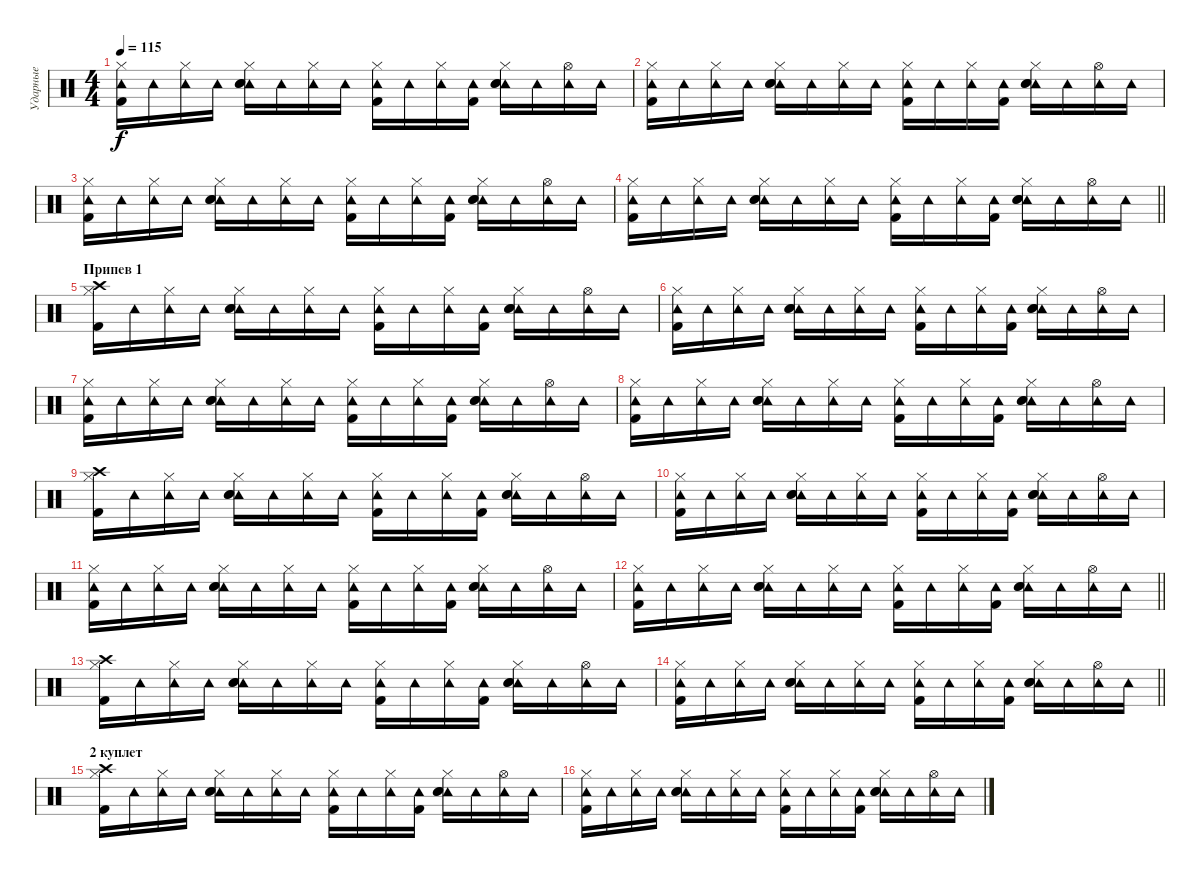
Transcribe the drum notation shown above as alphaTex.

\track ("Ударные" "Ударные") {instrument percussion}
\staff {score}
\articulation defaults
\ts (4 4)
\tempo 115
\clef neutral
\ks c
("Tambourine (hit)" "Hi-Hat (closed)" "Kick (hit) 2").16{dy f} "Tambourine (hit)".16 ("Tambourine (hit)" "Hi-Hat (closed)").16 "Tambourine (hit)".16 ("Tambourine (hit)" "Hi-Hat (closed)" "Electric Snare (hit)" "Snare (hit) 2").16 "Tambourine (hit)".16 ("Tambourine (hit)" "Hi-Hat (closed)").16 "Tambourine (hit)".16 ("Tambourine (hit)" "Hi-Hat (closed)" "Kick (hit) 2").16 "Tambourine (hit)".16 ("Tambourine (hit)" "Hi-Hat (closed)").16 ("Tambourine (hit)" "Kick (hit) 2").16 ("Tambourine (hit)" "Hi-Hat (closed)" "Electric Snare (hit)" "Snare (hit) 2").16 "Tambourine (hit)".16 ("Tambourine (hit)" "Hi-Hat (open)").16 "Tambourine (hit)".16 |
("Tambourine (hit)" "Hi-Hat (closed)" "Kick (hit) 2").16 "Tambourine (hit)".16 ("Tambourine (hit)" "Hi-Hat (closed)").16 "Tambourine (hit)".16 ("Tambourine (hit)" "Hi-Hat (closed)" "Electric Snare (hit)" "Snare (hit) 2").16 "Tambourine (hit)".16 ("Tambourine (hit)" "Hi-Hat (closed)").16 "Tambourine (hit)".16 ("Tambourine (hit)" "Hi-Hat (closed)" "Kick (hit) 2").16 "Tambourine (hit)".16 ("Tambourine (hit)" "Hi-Hat (closed)").16 ("Tambourine (hit)" "Kick (hit) 2").16 ("Tambourine (hit)" "Hi-Hat (closed)" "Electric Snare (hit)" "Snare (hit) 2").16 "Tambourine (hit)".16 ("Tambourine (hit)" "Hi-Hat (open)").16 "Tambourine (hit)".16 |
("Tambourine (hit)" "Hi-Hat (closed)" "Kick (hit) 2").16 "Tambourine (hit)".16 ("Tambourine (hit)" "Hi-Hat (closed)").16 "Tambourine (hit)".16 ("Tambourine (hit)" "Hi-Hat (closed)" "Electric Snare (hit)" "Snare (hit) 2").16 "Tambourine (hit)".16 ("Tambourine (hit)" "Hi-Hat (closed)").16 "Tambourine (hit)".16 ("Tambourine (hit)" "Hi-Hat (closed)" "Kick (hit) 2").16 "Tambourine (hit)".16 ("Tambourine (hit)" "Hi-Hat (closed)").16 ("Tambourine (hit)" "Kick (hit) 2").16 ("Tambourine (hit)" "Hi-Hat (closed)" "Electric Snare (hit)" "Snare (hit) 2").16 "Tambourine (hit)".16 ("Tambourine (hit)" "Hi-Hat (open)").16 "Tambourine (hit)".16 |
\barLineRight lightlight
("Tambourine (hit)" "Hi-Hat (closed)" "Kick (hit) 2").16 "Tambourine (hit)".16 ("Tambourine (hit)" "Hi-Hat (closed)").16 "Tambourine (hit)".16 ("Tambourine (hit)" "Hi-Hat (closed)" "Electric Snare (hit)" "Snare (hit) 2").16 "Tambourine (hit)".16 ("Tambourine (hit)" "Hi-Hat (closed)").16 "Tambourine (hit)".16 ("Tambourine (hit)" "Hi-Hat (closed)" "Kick (hit) 2").16 "Tambourine (hit)".16 ("Tambourine (hit)" "Hi-Hat (closed)").16 ("Tambourine (hit)" "Kick (hit) 2").16 ("Tambourine (hit)" "Hi-Hat (closed)" "Electric Snare (hit)" "Snare (hit) 2").16 "Tambourine (hit)".16 ("Tambourine (hit)" "Hi-Hat (open)").16 "Tambourine (hit)".16 |
\section ("" "Припев 1")
("Crash high (hit)" "Hi-Hat (closed)" "Kick (hit) 2").16 "Tambourine (hit)".16 ("Tambourine (hit)" "Hi-Hat (closed)").16 "Tambourine (hit)".16 ("Tambourine (hit)" "Hi-Hat (closed)" "Electric Snare (hit)" "Snare (hit) 2").16 "Tambourine (hit)".16 ("Tambourine (hit)" "Hi-Hat (closed)").16 "Tambourine (hit)".16 ("Tambourine (hit)" "Hi-Hat (closed)" "Kick (hit) 2").16 "Tambourine (hit)".16 ("Tambourine (hit)" "Hi-Hat (closed)").16 ("Tambourine (hit)" "Kick (hit) 2").16 ("Tambourine (hit)" "Hi-Hat (closed)" "Electric Snare (hit)" "Snare (hit) 2").16 "Tambourine (hit)".16 ("Tambourine (hit)" "Hi-Hat (open)").16 "Tambourine (hit)".16 |
("Tambourine (hit)" "Hi-Hat (closed)" "Kick (hit) 2").16 "Tambourine (hit)".16 ("Tambourine (hit)" "Hi-Hat (closed)").16 "Tambourine (hit)".16 ("Tambourine (hit)" "Hi-Hat (closed)" "Electric Snare (hit)" "Snare (hit) 2").16 "Tambourine (hit)".16 ("Tambourine (hit)" "Hi-Hat (closed)").16 "Tambourine (hit)".16 ("Tambourine (hit)" "Hi-Hat (closed)" "Kick (hit) 2").16 "Tambourine (hit)".16 ("Tambourine (hit)" "Hi-Hat (closed)").16 ("Tambourine (hit)" "Kick (hit) 2").16 ("Tambourine (hit)" "Hi-Hat (closed)" "Electric Snare (hit)" "Snare (hit) 2").16 "Tambourine (hit)".16 ("Tambourine (hit)" "Hi-Hat (open)").16 "Tambourine (hit)".16 |
("Tambourine (hit)" "Hi-Hat (closed)" "Kick (hit) 2").16 "Tambourine (hit)".16 ("Tambourine (hit)" "Hi-Hat (closed)").16 "Tambourine (hit)".16 ("Tambourine (hit)" "Hi-Hat (closed)" "Electric Snare (hit)" "Snare (hit) 2").16 "Tambourine (hit)".16 ("Tambourine (hit)" "Hi-Hat (closed)").16 "Tambourine (hit)".16 ("Tambourine (hit)" "Hi-Hat (closed)" "Kick (hit) 2").16 "Tambourine (hit)".16 ("Tambourine (hit)" "Hi-Hat (closed)").16 ("Tambourine (hit)" "Kick (hit) 2").16 ("Tambourine (hit)" "Hi-Hat (closed)" "Electric Snare (hit)" "Snare (hit) 2").16 "Tambourine (hit)".16 ("Tambourine (hit)" "Hi-Hat (open)").16 "Tambourine (hit)".16 |
("Tambourine (hit)" "Hi-Hat (closed)" "Kick (hit) 2").16 "Tambourine (hit)".16 ("Tambourine (hit)" "Hi-Hat (closed)").16 "Tambourine (hit)".16 ("Tambourine (hit)" "Hi-Hat (closed)" "Electric Snare (hit)" "Snare (hit) 2").16 "Tambourine (hit)".16 ("Tambourine (hit)" "Hi-Hat (closed)").16 "Tambourine (hit)".16 ("Tambourine (hit)" "Hi-Hat (closed)" "Kick (hit) 2").16 "Tambourine (hit)".16 ("Tambourine (hit)" "Hi-Hat (closed)").16 ("Tambourine (hit)" "Kick (hit) 2").16 ("Tambourine (hit)" "Hi-Hat (closed)" "Electric Snare (hit)" "Snare (hit) 2").16 "Tambourine (hit)".16 ("Tambourine (hit)" "Hi-Hat (open)").16 "Tambourine (hit)".16 |
("Crash high (hit)" "Hi-Hat (closed)" "Kick (hit) 2").16 "Tambourine (hit)".16 ("Tambourine (hit)" "Hi-Hat (closed)").16 "Tambourine (hit)".16 ("Tambourine (hit)" "Hi-Hat (closed)" "Electric Snare (hit)" "Snare (hit) 2").16 "Tambourine (hit)".16 ("Tambourine (hit)" "Hi-Hat (closed)").16 "Tambourine (hit)".16 ("Tambourine (hit)" "Hi-Hat (closed)" "Kick (hit) 2").16 "Tambourine (hit)".16 ("Tambourine (hit)" "Hi-Hat (closed)").16 ("Tambourine (hit)" "Kick (hit) 2").16 ("Tambourine (hit)" "Hi-Hat (closed)" "Electric Snare (hit)" "Snare (hit) 2").16 "Tambourine (hit)".16 ("Tambourine (hit)" "Hi-Hat (open)").16 "Tambourine (hit)".16 |
("Tambourine (hit)" "Hi-Hat (closed)" "Kick (hit) 2").16 "Tambourine (hit)".16 ("Tambourine (hit)" "Hi-Hat (closed)").16 "Tambourine (hit)".16 ("Tambourine (hit)" "Hi-Hat (closed)" "Electric Snare (hit)" "Snare (hit) 2").16 "Tambourine (hit)".16 ("Tambourine (hit)" "Hi-Hat (closed)").16 "Tambourine (hit)".16 ("Tambourine (hit)" "Hi-Hat (closed)" "Kick (hit) 2").16 "Tambourine (hit)".16 ("Tambourine (hit)" "Hi-Hat (closed)").16 ("Tambourine (hit)" "Kick (hit) 2").16 ("Tambourine (hit)" "Hi-Hat (closed)" "Electric Snare (hit)" "Snare (hit) 2").16 "Tambourine (hit)".16 ("Tambourine (hit)" "Hi-Hat (open)").16 "Tambourine (hit)".16 |
("Tambourine (hit)" "Hi-Hat (closed)" "Kick (hit) 2").16 "Tambourine (hit)".16 ("Tambourine (hit)" "Hi-Hat (closed)").16 "Tambourine (hit)".16 ("Tambourine (hit)" "Hi-Hat (closed)" "Electric Snare (hit)" "Snare (hit) 2").16 "Tambourine (hit)".16 ("Tambourine (hit)" "Hi-Hat (closed)").16 "Tambourine (hit)".16 ("Tambourine (hit)" "Hi-Hat (closed)" "Kick (hit) 2").16 "Tambourine (hit)".16 ("Tambourine (hit)" "Hi-Hat (closed)").16 ("Tambourine (hit)" "Kick (hit) 2").16 ("Tambourine (hit)" "Hi-Hat (closed)" "Electric Snare (hit)" "Snare (hit) 2").16 "Tambourine (hit)".16 ("Tambourine (hit)" "Hi-Hat (open)").16 "Tambourine (hit)".16 |
\barLineRight lightlight
("Tambourine (hit)" "Hi-Hat (closed)" "Kick (hit) 2").16 "Tambourine (hit)".16 ("Tambourine (hit)" "Hi-Hat (closed)").16 "Tambourine (hit)".16 ("Tambourine (hit)" "Hi-Hat (closed)" "Electric Snare (hit)" "Snare (hit) 2").16 "Tambourine (hit)".16 ("Tambourine (hit)" "Hi-Hat (closed)").16 "Tambourine (hit)".16 ("Tambourine (hit)" "Hi-Hat (closed)" "Kick (hit) 2").16 "Tambourine (hit)".16 ("Tambourine (hit)" "Hi-Hat (closed)").16 ("Tambourine (hit)" "Kick (hit) 2").16 ("Tambourine (hit)" "Hi-Hat (closed)" "Electric Snare (hit)" "Snare (hit) 2").16 "Tambourine (hit)".16 ("Tambourine (hit)" "Hi-Hat (open)").16 "Tambourine (hit)".16 |
\section ("" "")
("Crash high (hit)" "Hi-Hat (closed)" "Kick (hit) 2").16 "Tambourine (hit)".16 ("Tambourine (hit)" "Hi-Hat (closed)").16 "Tambourine (hit)".16 ("Tambourine (hit)" "Hi-Hat (closed)" "Electric Snare (hit)" "Snare (hit) 2").16 "Tambourine (hit)".16 ("Tambourine (hit)" "Hi-Hat (closed)").16 "Tambourine (hit)".16 ("Tambourine (hit)" "Hi-Hat (closed)" "Kick (hit) 2").16 "Tambourine (hit)".16 ("Tambourine (hit)" "Hi-Hat (closed)").16 ("Tambourine (hit)" "Kick (hit) 2").16 ("Tambourine (hit)" "Hi-Hat (closed)" "Electric Snare (hit)" "Snare (hit) 2").16 "Tambourine (hit)".16 ("Tambourine (hit)" "Hi-Hat (open)").16 "Tambourine (hit)".16 |
\barLineRight lightlight
("Tambourine (hit)" "Hi-Hat (closed)" "Kick (hit) 2").16 "Tambourine (hit)".16 ("Tambourine (hit)" "Hi-Hat (closed)").16 "Tambourine (hit)".16 ("Tambourine (hit)" "Hi-Hat (closed)" "Electric Snare (hit)" "Snare (hit) 2").16 "Tambourine (hit)".16 ("Tambourine (hit)" "Hi-Hat (closed)").16 "Tambourine (hit)".16 ("Tambourine (hit)" "Hi-Hat (closed)" "Kick (hit) 2").16 "Tambourine (hit)".16 ("Tambourine (hit)" "Hi-Hat (closed)").16 ("Tambourine (hit)" "Kick (hit) 2").16 ("Tambourine (hit)" "Hi-Hat (closed)" "Electric Snare (hit)" "Snare (hit) 2").16 "Tambourine (hit)".16 ("Tambourine (hit)" "Hi-Hat (open)").16 "Tambourine (hit)".16 |
\section ("" "2 куплет")
("Crash high (hit)" "Hi-Hat (closed)" "Kick (hit) 2").16 "Tambourine (hit)".16 ("Tambourine (hit)" "Hi-Hat (closed)").16 "Tambourine (hit)".16 ("Tambourine (hit)" "Hi-Hat (closed)" "Electric Snare (hit)" "Snare (hit) 2").16 "Tambourine (hit)".16 ("Tambourine (hit)" "Hi-Hat (closed)").16 "Tambourine (hit)".16 ("Tambourine (hit)" "Hi-Hat (closed)" "Kick (hit) 2").16 "Tambourine (hit)".16 ("Tambourine (hit)" "Hi-Hat (closed)").16 ("Tambourine (hit)" "Kick (hit) 2").16 ("Tambourine (hit)" "Hi-Hat (closed)" "Electric Snare (hit)" "Snare (hit) 2").16 "Tambourine (hit)".16 ("Tambourine (hit)" "Hi-Hat (open)").16 "Tambourine (hit)".16 |
("Tambourine (hit)" "Hi-Hat (closed)" "Kick (hit) 2").16 "Tambourine (hit)".16 ("Tambourine (hit)" "Hi-Hat (closed)").16 "Tambourine (hit)".16 ("Tambourine (hit)" "Hi-Hat (closed)" "Electric Snare (hit)" "Snare (hit) 2").16 "Tambourine (hit)".16 ("Tambourine (hit)" "Hi-Hat (closed)").16 "Tambourine (hit)".16 ("Tambourine (hit)" "Hi-Hat (closed)" "Kick (hit) 2").16 "Tambourine (hit)".16 ("Tambourine (hit)" "Hi-Hat (closed)").16 ("Tambourine (hit)" "Kick (hit) 2").16 ("Tambourine (hit)" "Hi-Hat (closed)" "Electric Snare (hit)" "Snare (hit) 2").16 "Tambourine (hit)".16 ("Tambourine (hit)" "Hi-Hat (open)").16 "Tambourine (hit)".16
